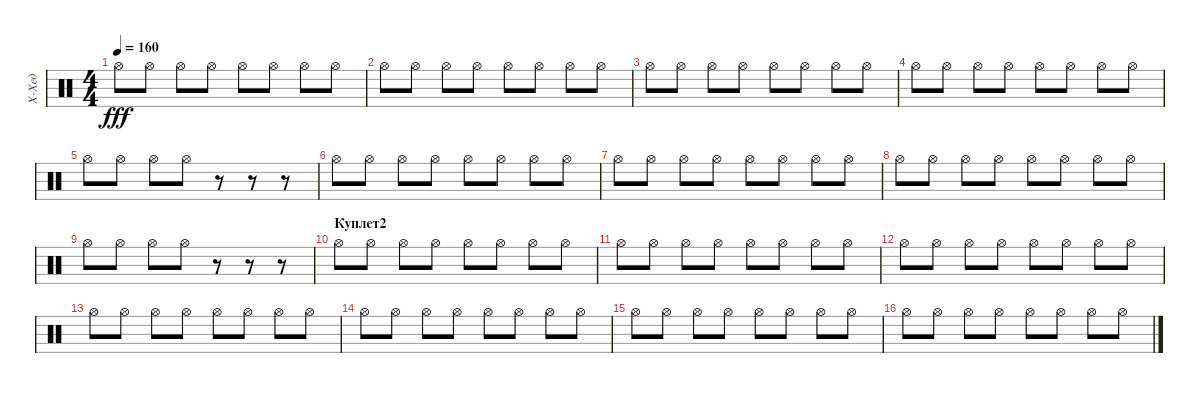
\track ("Х-Хед" "Х-Хед") {instrument percussion}
\staff {score}
\articulation defaults
\ts (4 4)
\tempo 160
\clef neutral
\ks c "Hi-Hat (open)".8{dy fff} "Hi-Hat (open)".8 "Hi-Hat (open)".8 "Hi-Hat (open)".8 "Hi-Hat (open)".8 "Hi-Hat (open)".8 "Hi-Hat (open)".8 "Hi-Hat (open)".8
|
"Hi-Hat (open)".8 "Hi-Hat (open)".8 "Hi-Hat (open)".8 "Hi-Hat (open)".8 "Hi-Hat (open)".8 "Hi-Hat (open)".8 "Hi-Hat (open)".8 "Hi-Hat (open)".8 |
"Hi-Hat (open)".8 "Hi-Hat (open)".8 "Hi-Hat (open)".8 "Hi-Hat (open)".8 "Hi-Hat (open)".8 "Hi-Hat (open)".8 "Hi-Hat (open)".8 "Hi-Hat (open)".8 |
"Hi-Hat (open)".8 "Hi-Hat (open)".8 "Hi-Hat (open)".8 "Hi-Hat (open)".8 "Hi-Hat (open)".8 "Hi-Hat (open)".8 "Hi-Hat (open)".8 "Hi-Hat (open)".8 |
"Hi-Hat (open)".8 "Hi-Hat (open)".8 "Hi-Hat (open)".8 "Hi-Hat (open)".8 r.8 r.8 r.8 |
"Hi-Hat (open)".8 "Hi-Hat (open)".8 "Hi-Hat (open)".8 "Hi-Hat (open)".8 "Hi-Hat (open)".8 "Hi-Hat (open)".8 "Hi-Hat (open)".8 "Hi-Hat (open)".8 |
"Hi-Hat (open)".8 "Hi-Hat (open)".8 "Hi-Hat (open)".8 "Hi-Hat (open)".8 "Hi-Hat (open)".8 "Hi-Hat (open)".8 "Hi-Hat (open)".8 "Hi-Hat (open)".8 |
"Hi-Hat (open)".8 "Hi-Hat (open)".8 "Hi-Hat (open)".8 "Hi-Hat (open)".8 "Hi-Hat (open)".8 "Hi-Hat (open)".8 "Hi-Hat (open)".8 "Hi-Hat (open)".8 |
"Hi-Hat (open)".8 "Hi-Hat (open)".8 "Hi-Hat (open)".8 "Hi-Hat (open)".8 r.8 r.8 r.8 |
\section ("" "Куплет2")
"Hi-Hat (open)".8 "Hi-Hat (open)".8 "Hi-Hat (open)".8 "Hi-Hat (open)".8 "Hi-Hat (open)".8 "Hi-Hat (open)".8 "Hi-Hat (open)".8 "Hi-Hat (open)".8 |
"Hi-Hat (open)".8 "Hi-Hat (open)".8 "Hi-Hat (open)".8 "Hi-Hat (open)".8 "Hi-Hat (open)".8 "Hi-Hat (open)".8 "Hi-Hat (open)".8 "Hi-Hat (open)".8 |
"Hi-Hat (open)".8 "Hi-Hat (open)".8 "Hi-Hat (open)".8 "Hi-Hat (open)".8 "Hi-Hat (open)".8 "Hi-Hat (open)".8 "Hi-Hat (open)".8 "Hi-Hat (open)".8 |
"Hi-Hat (open)".8 "Hi-Hat (open)".8 "Hi-Hat (open)".8 "Hi-Hat (open)".8 "Hi-Hat (open)".8 "Hi-Hat (open)".8 "Hi-Hat (open)".8 "Hi-Hat (open)".8 |
"Hi-Hat (open)".8 "Hi-Hat (open)".8 "Hi-Hat (open)".8 "Hi-Hat (open)".8 "Hi-Hat (open)".8 "Hi-Hat (open)".8 "Hi-Hat (open)".8 "Hi-Hat (open)".8 |
"Hi-Hat (open)".8 "Hi-Hat (open)".8 "Hi-Hat (open)".8 "Hi-Hat (open)".8 "Hi-Hat (open)".8 "Hi-Hat (open)".8 "Hi-Hat (open)".8 "Hi-Hat (open)".8 |
"Hi-Hat (open)".8 "Hi-Hat (open)".8 "Hi-Hat (open)".8 "Hi-Hat (open)".8 "Hi-Hat (open)".8 "Hi-Hat (open)".8 "Hi-Hat (open)".8 "Hi-Hat (open)".8
